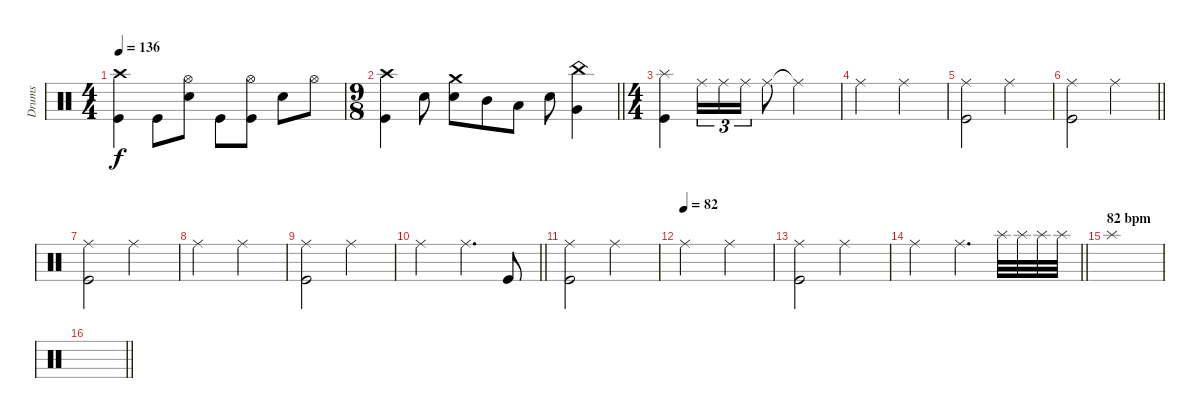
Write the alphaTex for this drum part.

\track ("Drums" "Drums") {instrument percussion}
\staff
\articulation defaults
\ts (4 4)
\tempo 136
\clef neutral
\ks c
("Crash high (hit)" "Kick (hit)").4{dy f} "Kick (hit)".8 ("Hi-Hat (open)" "Electric Snare (hit)").8 "Kick (hit)".8 ("Hi-Hat (open)" "Kick (hit)").8 "Electric Snare (hit)".8 "Hi-Hat (open)".8 |
\ts (9 8)
\barLineRight lightlight
("Crash high (hit)" "Kick (hit)").4 "Electric Snare (hit)".8 ("Crash medium (hit)" "Electric Snare (hit)").8 "Mid Tom (hit)".8 "Low Tom (hit)".8 "Electric Snare (hit)".8 ("China (hit)" "Very Low Tom (hit)").4 |
\ts (4 4)
\section ("" "")
("Splash (hit)" "Kick (hit)").4 "Ride (middle)".16{tu (3 2)} "Ride (middle)".16{tu (3 2)} "Ride (middle)".16{tu (3 2)} "Ride (middle)".8 "Ride (middle)"{t}.2 |
"Ride (middle)".2 "Ride (middle)".2 |
("Ride (middle)" "Kick (hit)").2 "Ride (middle)".2 |
\barLineRight lightlight
("Ride (middle)" "Kick (hit)").2 "Ride (middle)".2 |
("Ride (middle)" "Kick (hit)").2 "Ride (middle)".2 |
"Ride (middle)".2 "Ride (middle)".2 |
("Ride (middle)" "Kick (hit)").2 "Ride (middle)".2 |
\barLineRight lightlight "Ride (middle)".2 "Ride (middle)".4{d} "Kick (hit)".8
|
("Ride (middle)" "Kick (hit)").2 "Ride (middle)".2 |
\tempo (82)
"Ride (middle)".2 "Ride (middle)".2 |
("Ride (middle)" "Kick (hit)").2 "Ride (middle)".2 |
\barLineRight lightlight "Ride (middle)".2 "Ride (middle)".4{d} "Splash (hit)".32{volume 5} "Splash (hit)".32{volume 11} "Splash (hit)".32 "Splash (hit)".32
|
\section ("" "82 bpm")
"Splash (hit)".1 |
\barLineRight lightlight
